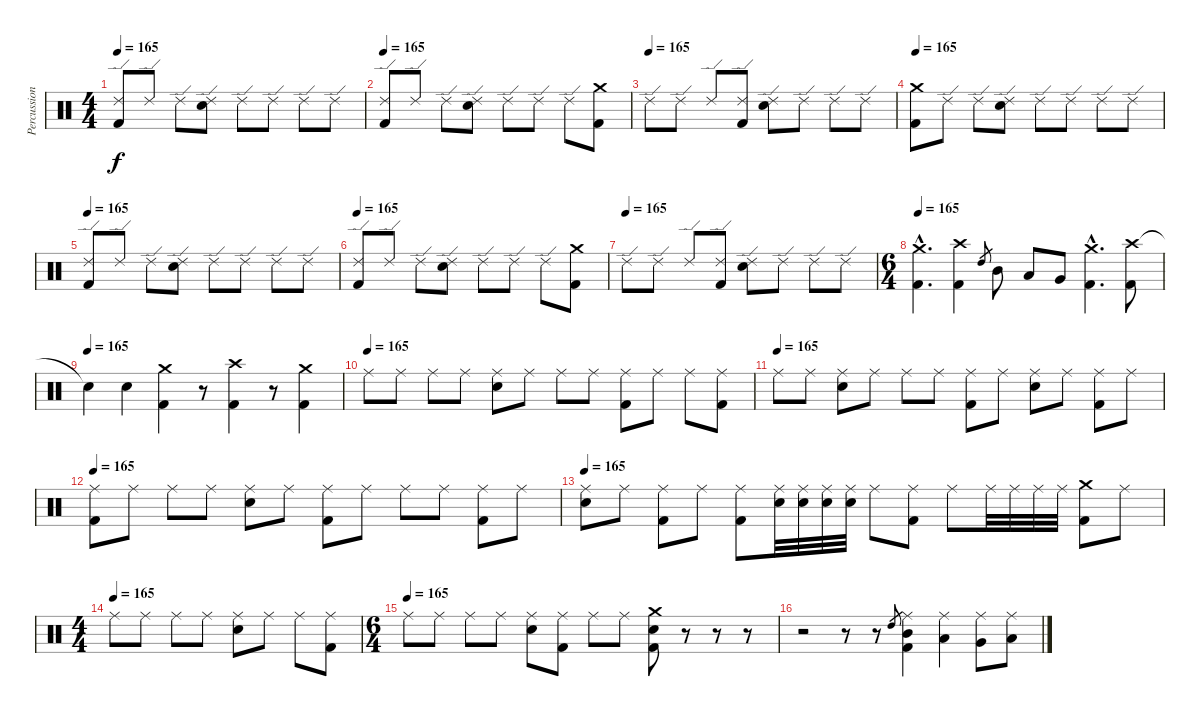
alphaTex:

\track ("Percussion" "Percussion") {instrument percussion}
\staff {score}
\articulation defaults
\ts (4 4)
\tempo 165
\clef neutral
\ks c
("Ride (edge) 2" "Kick (hit) 2").8{dy f} "Ride (edge) 2".8 "Ride (edge) 2".8 ("Ride (edge) 2" "Electric Snare (hit)").8 "Ride (edge) 2".8 "Ride (edge) 2".8 "Ride (edge) 2".8 "Ride (edge) 2".8 |
\tempo 165
("Ride (edge) 2" "Kick (hit) 2").8 "Ride (edge) 2".8 "Ride (edge) 2".8 ("Ride (edge) 2" "Electric Snare (hit)").8 "Ride (edge) 2".8 "Ride (edge) 2".8 "Ride (edge) 2".8 ("Crash medium (hit)" "Kick (hit) 2").8 |
\tempo (165)
"Ride (edge) 2".8 "Ride (edge) 2".8 "Ride (edge) 2".8 ("Ride (edge) 2" "Kick (hit) 2").8 ("Ride (edge) 2" "Electric Snare (hit)").8 "Ride (edge) 2".8 "Ride (edge) 2".8 "Ride (edge) 2".8 |
\tempo 165
("Crash medium (hit)" "Kick (hit) 2").8 "Ride (edge) 2".8 "Ride (edge) 2".8 ("Ride (edge) 2" "Electric Snare (hit)").8 "Ride (edge) 2".8 "Ride (edge) 2".8 "Ride (edge) 2".8 "Ride (edge) 2".8 |
\tempo 165
("Ride (edge) 2" "Kick (hit) 2").8 "Ride (edge) 2".8 "Ride (edge) 2".8 ("Ride (edge) 2" "Electric Snare (hit)").8 "Ride (edge) 2".8 "Ride (edge) 2".8 "Ride (edge) 2".8 "Ride (edge) 2".8 |
\tempo 165
("Ride (edge) 2" "Kick (hit) 2").8 "Ride (edge) 2".8 "Ride (edge) 2".8 ("Ride (edge) 2" "Electric Snare (hit)").8 "Ride (edge) 2".8 "Ride (edge) 2".8 "Ride (edge) 2".8 ("Crash medium (hit)" "Kick (hit) 2").8 |
\tempo (165)
"Ride (edge) 2".8 "Ride (edge) 2".8 "Ride (edge) 2".8 ("Ride (edge) 2" "Kick (hit) 2").8 ("Ride (edge) 2" "Electric Snare (hit)").8 "Ride (edge) 2".8 "Ride (edge) 2".8 "Ride (edge) 2".8 |
\ts (6 4)
\tempo 165
("Crash medium (hit)"{hac} "Kick (hit) 2"{hac}).4{d} ("Crash high (hit)" "Kick (hit) 2").4 "High Tom (hit)".8{gr} "Mid Tom (hit)".8 "Low Tom (hit)".8 "Very Low Tom (hit)".8 ("Crash medium (hit)"{hac} "Kick (hit) 2"{hac}).4{d} ("Crash high (hit)" "Kick (hit) 2").8 |
\tempo (165)
"Snare (hit)"{t}.4 "Electric Snare (hit)".4 ("Crash medium (hit)" "Kick (hit) 2").4 r.8 ("Crash high (hit)" "Kick (hit) 2").4 r.8 ("Crash medium (hit)" "Kick (hit) 2").4 |
\tempo (165)
"Ride (middle)".8 "Ride (middle)".8 "Ride (middle)".8 "Ride (middle)".8 ("Ride (middle)" "Electric Snare (hit)").8 "Ride (middle)".8 "Ride (middle)".8 "Ride (middle)".8 ("Ride (middle)" "Kick (hit) 2").8 "Ride (middle)".8 "Ride (middle)".8 ("Ride (middle)" "Kick (hit) 2").8 |
\tempo (165)
"Ride (middle)".8 "Ride (middle)".8 ("Ride (middle)" "Electric Snare (hit)").8 "Ride (middle)".8 "Ride (middle)".8 "Ride (middle)".8 ("Ride (middle)" "Kick (hit) 2").8 "Ride (middle)".8 ("Ride (middle)" "Electric Snare (hit)").8 "Ride (middle)".8 ("Ride (middle)" "Kick (hit) 2").8 "Ride (middle)".8 |
\tempo 165
("Ride (middle)" "Kick (hit) 2").8 "Ride (middle)".8 "Ride (middle)".8 "Ride (middle)".8 ("Ride (middle)" "Electric Snare (hit)").8 "Ride (middle)".8 ("Ride (middle)" "Kick (hit) 2").8 "Ride (middle)".8 "Ride (middle)".8 "Ride (middle)".8 ("Ride (middle)" "Kick (hit) 2").8 "Ride (middle)".8 |
\tempo 165
("Ride (middle)" "Electric Snare (hit)").8 "Ride (middle)".8 ("Ride (middle)" "Kick (hit) 2").8 "Ride (middle)".8 ("Ride (middle)" "Kick (hit) 2").8 ("Ride (middle)" "Electric Snare (hit)").32 ("Ride (middle)" "Electric Snare (hit)").32 ("Ride (middle)" "Electric Snare (hit)").32 ("Ride (middle)" "Electric Snare (hit)").32 "Ride (middle)".8 ("Ride (middle)" "Kick (hit) 2").8 "Ride (middle)".8 "Ride (middle)".32 "Ride (middle)".32 "Ride (middle)".32 "Ride (middle)".32 ("Crash medium (hit)" "Kick (hit) 2").8 "Ride (middle)".8 |
\ts (4 4)
\tempo (165)
"Ride (middle)".8 "Ride (middle)".8 "Ride (middle)".8 "Ride (middle)".8 ("Ride (middle)" "Electric Snare (hit)").8 "Ride (middle)".8 "Ride (middle)".8 ("Ride (middle)" "Kick (hit) 2").8 |
\ts (6 4)
\tempo (165)
"Ride (middle)".8 "Ride (middle)".8 "Ride (middle)".8 "Ride (middle)".8 ("Ride (middle)" "Electric Snare (hit)").8 ("Ride (middle)" "Kick (hit) 2").8 "Ride (middle)".8 "Ride (middle)".8 ("Crash medium (hit)" "Electric Snare (hit)" "Kick (hit) 2").8 r.8 r.8 r.8 |
r.2 r.8 r.8 "High Tom (hit)".8{gr} ("Ride (middle)" "Mid Tom (hit)" "Kick (hit) 2").4 ("Ride (middle)" "Low Tom (hit)").4 ("Ride (middle)" "Very Low Tom (hit)").8 ("Ride (middle)" "Low Floor Tom (hit)").8
